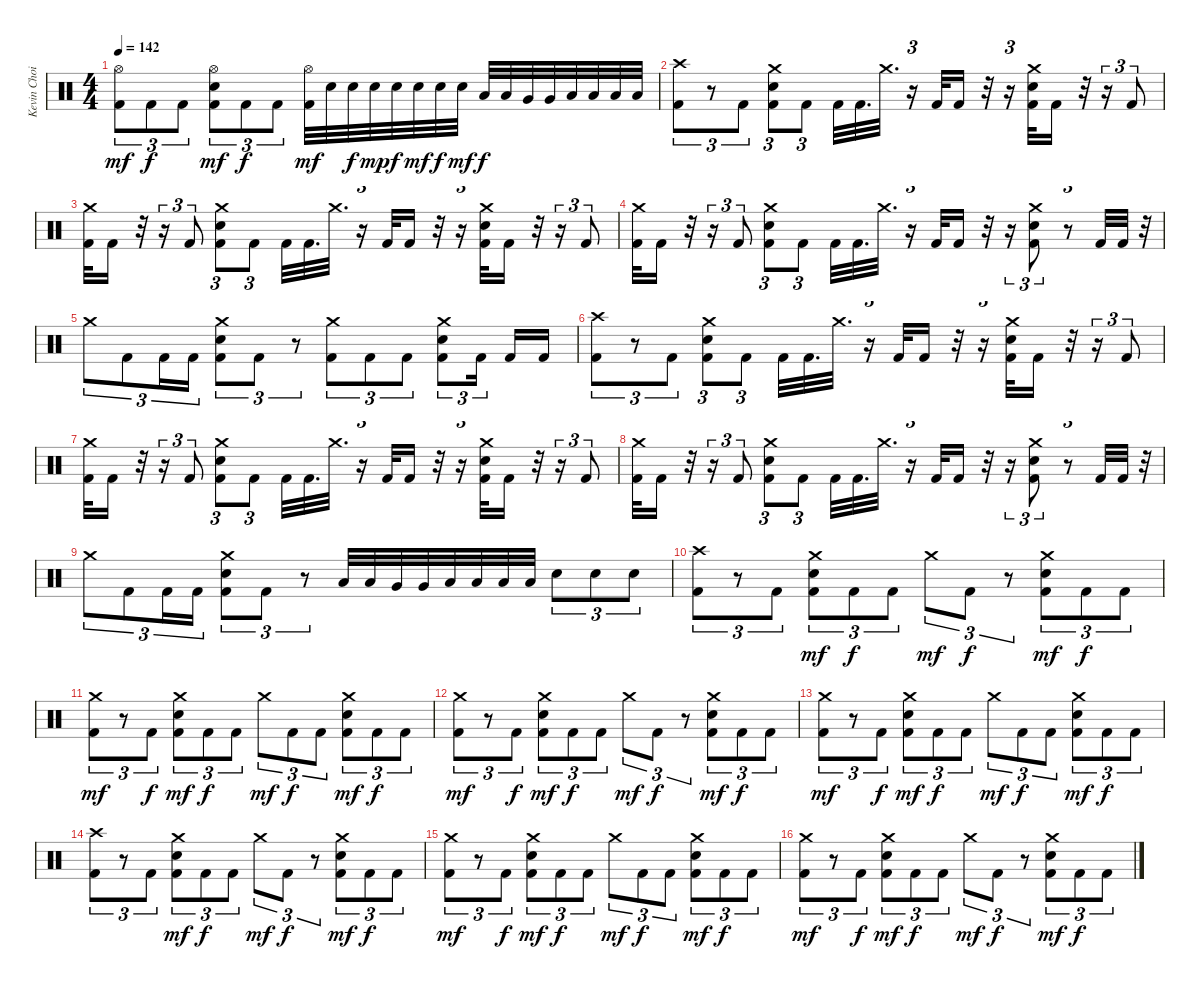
\track ("Kevin Choiral" "Kevin Choi") {instrument percussion}
\staff
\articulation defaults
\ts (4 4)
\tempo 142
\clef neutral
\ks c
("Hi-Hat (open)" "Kick (hit) 2").8{tu (3 2) dy mf} "Kick (hit) 2".8{tu (3 2) dy f} "Kick (hit) 2".8{tu (3 2)} ("Hi-Hat (open)" "Electric Snare (hit)" "Kick (hit) 2").8{tu (3 2) dy mf} "Kick (hit) 2".8{tu (3 2) dy f} "Kick (hit) 2".8{tu (3 2)} ("Hi-Hat (open)" "Kick (hit) 2").32{dy mf} "Electric Snare (hit)".32 "Electric Snare (hit)".32{dy f} "Electric Snare (hit)".32{dy mp} "Electric Snare (hit)".32{dy f} "Electric Snare (hit)".32{dy mf} "Electric Snare (hit)".32{dy f} "Electric Snare (hit)".32{dy mf} "Low Tom (hit)".32{dy f} "Low Tom (hit)".32 "Very Low Tom (hit)".32 "Very Low Tom (hit)".32 "Low Floor Tom (hit)".32 "Low Floor Tom (hit)".32 "Low Floor Tom (hit)".32 "Low Floor Tom (hit)".32 |
("Crash high (hit)" "Kick (hit) 2").8{tu (3 2)} r.8{tu (3 2)} "Kick (hit) 2".8{tu (3 2)} ("Crash medium (hit)" "Electric Snare (hit)" "Kick (hit) 2").8{tu (3 2)} "Kick (hit) 2".8{tu (3 2)} "Kick (hit) 2".32 "Kick (hit) 2".32{d} "Crash medium (hit)".32{d} r.16{tu (3 2)} "Kick (hit) 2".32 "Kick (hit) 2".16 r.32 r.16{tu (3 2)} ("Crash medium (hit)" "Electric Snare (hit)" "Kick (hit) 2").32 "Kick (hit) 2".16 r.32 r.16{tu (3 2)} "Kick (hit) 2".8{tu (3 2)} |
("Crash medium (hit)" "Kick (hit) 2").32 "Kick (hit) 2".16 r.32 r.16{tu (3 2)} "Kick (hit) 2".8{tu (3 2)} ("Crash medium (hit)" "Electric Snare (hit)" "Kick (hit) 2").8{tu (3 2)} "Kick (hit) 2".8{tu (3 2)} "Kick (hit) 2".32 "Kick (hit) 2".32{d} "Crash medium (hit)".32{d} r.16{tu (3 2)} "Kick (hit) 2".32 "Kick (hit) 2".16 r.32 r.16{tu (3 2)} ("Crash medium (hit)" "Electric Snare (hit)" "Kick (hit) 2").32 "Kick (hit) 2".16 r.32 r.16{tu (3 2)} "Kick (hit) 2".8{tu (3 2)} |
("Crash medium (hit)" "Kick (hit) 2").32 "Kick (hit) 2".16 r.32 r.16{tu (3 2)} "Kick (hit) 2".8{tu (3 2)} ("Crash medium (hit)" "Electric Snare (hit)" "Kick (hit) 2").8{tu (3 2)} "Kick (hit) 2".8{tu (3 2)} "Kick (hit) 2".32 "Kick (hit) 2".32{d} "Crash medium (hit)".32{d} r.16{tu (3 2)} "Kick (hit) 2".32 "Kick (hit) 2".16 r.32 r.16{tu (3 2)} ("Crash medium (hit)" "Electric Snare (hit)" "Kick (hit) 2").8{tu (3 2)} r.8{tu (3 2)} "Kick (hit) 2".32 "Kick (hit) 2".32 r.32{tu (3 2)} |
"Crash medium (hit)".8{tu (3 2)} "Kick (hit) 2".8{tu (3 2)} "Kick (hit) 2".16{tu (3 2)} "Kick (hit) 2".16{tu (3 2)} ("Crash medium (hit)" "Electric Snare (hit)" "Kick (hit) 2").8{tu (3 2)} "Kick (hit) 2".8{tu (3 2)} r.8{tu (3 2)} ("Crash medium (hit)" "Kick (hit) 2").8{tu (3 2)} "Kick (hit) 2".8{tu (3 2)} "Kick (hit) 2".8{tu (3 2)} ("Crash medium (hit)" "Electric Snare (hit)" "Kick (hit) 2").8{tu (3 2)} "Kick (hit) 2".16{tu (3 2) beam splitsecondary} "Kick (hit) 2".16 "Kick (hit) 2".16 |
("Crash high (hit)" "Kick (hit) 2").8{tu (3 2)} r.8{tu (3 2)} "Kick (hit) 2".8{tu (3 2)} ("Crash medium (hit)" "Electric Snare (hit)" "Kick (hit) 2").8{tu (3 2)} "Kick (hit) 2".8{tu (3 2)} "Kick (hit) 2".32 "Kick (hit) 2".32{d} "Crash medium (hit)".32{d} r.16{tu (3 2)} "Kick (hit) 2".32 "Kick (hit) 2".16 r.32 r.16{tu (3 2)} ("Crash medium (hit)" "Electric Snare (hit)" "Kick (hit) 2").32 "Kick (hit) 2".16 r.32 r.16{tu (3 2)} "Kick (hit) 2".8{tu (3 2)} |
("Crash medium (hit)" "Kick (hit) 2").32 "Kick (hit) 2".16 r.32 r.16{tu (3 2)} "Kick (hit) 2".8{tu (3 2)} ("Crash medium (hit)" "Electric Snare (hit)" "Kick (hit) 2").8{tu (3 2)} "Kick (hit) 2".8{tu (3 2)} "Kick (hit) 2".32 "Kick (hit) 2".32{d} "Crash medium (hit)".32{d} r.16{tu (3 2)} "Kick (hit) 2".32 "Kick (hit) 2".16 r.32 r.16{tu (3 2)} ("Crash medium (hit)" "Electric Snare (hit)" "Kick (hit) 2").32 "Kick (hit) 2".16 r.32 r.16{tu (3 2)} "Kick (hit) 2".8{tu (3 2)} |
("Crash medium (hit)" "Kick (hit) 2").32 "Kick (hit) 2".16 r.32 r.16{tu (3 2)} "Kick (hit) 2".8{tu (3 2)} ("Crash medium (hit)" "Electric Snare (hit)" "Kick (hit) 2").8{tu (3 2)} "Kick (hit) 2".8{tu (3 2)} "Kick (hit) 2".32 "Kick (hit) 2".32{d} "Crash medium (hit)".32{d} r.16{tu (3 2)} "Kick (hit) 2".32 "Kick (hit) 2".16 r.32 r.16{tu (3 2)} ("Crash medium (hit)" "Electric Snare (hit)" "Kick (hit) 2").8{tu (3 2)} r.8{tu (3 2)} "Kick (hit) 2".32 "Kick (hit) 2".32 r.32{tu (3 2)} |
"Crash medium (hit)".8{tu (3 2)} "Kick (hit) 2".8{tu (3 2)} "Kick (hit) 2".16{tu (3 2)} "Kick (hit) 2".16{tu (3 2)} ("Crash medium (hit)" "Electric Snare (hit)" "Kick (hit) 2").8{tu (3 2)} "Kick (hit) 2".8{tu (3 2)} r.8{tu (3 2)} "Low Tom (hit)".32 "Low Tom (hit)".32 "Very Low Tom (hit)".32 "Very Low Tom (hit)".32 "Low Floor Tom (hit)".32 "Low Floor Tom (hit)".32 "Low Floor Tom (hit)".32 "Low Floor Tom (hit)".32 "Electric Snare (hit)".8{tu (3 2)} "Electric Snare (hit)".8{tu (3 2)} "Electric Snare (hit)".8{tu (3 2)} |
("Crash high (hit)" "Kick (hit) 2").8{tu (3 2)} r.8{tu (3 2)} "Kick (hit) 2".8{tu (3 2)} ("Crash medium (hit)" "Electric Snare (hit)" "Kick (hit) 2").8{tu (3 2) dy mf} "Kick (hit) 2".8{tu (3 2) dy f} "Kick (hit) 2".8{tu (3 2)} "Crash medium (hit)".8{tu (3 2) dy mf} "Kick (hit) 2".8{tu (3 2) dy f} r.8{tu (3 2)} ("Crash medium (hit)" "Electric Snare (hit)" "Kick (hit) 2").8{tu (3 2) dy mf} "Kick (hit) 2".8{tu (3 2) dy f} "Kick (hit) 2".8{tu (3 2)} |
("Crash medium (hit)" "Kick (hit) 2").8{tu (3 2) dy mf} r.8{tu (3 2)} "Kick (hit) 2".8{tu (3 2) dy f} ("Crash medium (hit)" "Electric Snare (hit)" "Kick (hit) 2").8{tu (3 2) dy mf} "Kick (hit) 2".8{tu (3 2) dy f} "Kick (hit) 2".8{tu (3 2)} "Crash medium (hit)".8{tu (3 2) dy mf} "Kick (hit) 2".8{tu (3 2) dy f} "Kick (hit) 2".8{tu (3 2)} ("Crash medium (hit)" "Electric Snare (hit)" "Kick (hit) 2").8{tu (3 2) dy mf} "Kick (hit) 2".8{tu (3 2) dy f} "Kick (hit) 2".8{tu (3 2)} |
("Crash medium (hit)" "Kick (hit) 2").8{tu (3 2) dy mf} r.8{tu (3 2)} "Kick (hit) 2".8{tu (3 2) dy f} ("Crash medium (hit)" "Electric Snare (hit)" "Kick (hit) 2").8{tu (3 2) dy mf} "Kick (hit) 2".8{tu (3 2) dy f} "Kick (hit) 2".8{tu (3 2)} "Crash medium (hit)".8{tu (3 2) dy mf} "Kick (hit) 2".8{tu (3 2) dy f} r.8{tu (3 2)} ("Crash medium (hit)" "Electric Snare (hit)" "Kick (hit) 2").8{tu (3 2) dy mf} "Kick (hit) 2".8{tu (3 2) dy f} "Kick (hit) 2".8{tu (3 2)} |
("Crash medium (hit)" "Kick (hit) 2").8{tu (3 2) dy mf} r.8{tu (3 2)} "Kick (hit) 2".8{tu (3 2) dy f} ("Crash medium (hit)" "Electric Snare (hit)" "Kick (hit) 2").8{tu (3 2) dy mf} "Kick (hit) 2".8{tu (3 2) dy f} "Kick (hit) 2".8{tu (3 2)} "Crash medium (hit)".8{tu (3 2) dy mf} "Kick (hit) 2".8{tu (3 2) dy f} "Kick (hit) 2".8{tu (3 2)} ("Crash medium (hit)" "Electric Snare (hit)" "Kick (hit) 2").8{tu (3 2) dy mf} "Kick (hit) 2".8{tu (3 2) dy f} "Kick (hit) 2".8{tu (3 2)} |
("Crash high (hit)" "Kick (hit) 2").8{tu (3 2)} r.8{tu (3 2)} "Kick (hit) 2".8{tu (3 2)} ("Crash medium (hit)" "Electric Snare (hit)" "Kick (hit) 2").8{tu (3 2) dy mf} "Kick (hit) 2".8{tu (3 2) dy f} "Kick (hit) 2".8{tu (3 2)} "Crash medium (hit)".8{tu (3 2) dy mf} "Kick (hit) 2".8{tu (3 2) dy f} r.8{tu (3 2)} ("Crash medium (hit)" "Electric Snare (hit)" "Kick (hit) 2").8{tu (3 2) dy mf} "Kick (hit) 2".8{tu (3 2) dy f} "Kick (hit) 2".8{tu (3 2)} |
("Crash medium (hit)" "Kick (hit) 2").8{tu (3 2) dy mf} r.8{tu (3 2)} "Kick (hit) 2".8{tu (3 2) dy f} ("Crash medium (hit)" "Electric Snare (hit)" "Kick (hit) 2").8{tu (3 2) dy mf} "Kick (hit) 2".8{tu (3 2) dy f} "Kick (hit) 2".8{tu (3 2)} "Crash medium (hit)".8{tu (3 2) dy mf} "Kick (hit) 2".8{tu (3 2) dy f} "Kick (hit) 2".8{tu (3 2)} ("Crash medium (hit)" "Electric Snare (hit)" "Kick (hit) 2").8{tu (3 2) dy mf} "Kick (hit) 2".8{tu (3 2) dy f} "Kick (hit) 2".8{tu (3 2)} |
("Crash medium (hit)" "Kick (hit) 2").8{tu (3 2) dy mf} r.8{tu (3 2)} "Kick (hit) 2".8{tu (3 2) dy f} ("Crash medium (hit)" "Electric Snare (hit)" "Kick (hit) 2").8{tu (3 2) dy mf} "Kick (hit) 2".8{tu (3 2) dy f} "Kick (hit) 2".8{tu (3 2)} "Crash medium (hit)".8{tu (3 2) dy mf} "Kick (hit) 2".8{tu (3 2) dy f} r.8{tu (3 2)} ("Crash medium (hit)" "Electric Snare (hit)" "Kick (hit) 2").8{tu (3 2) dy mf} "Kick (hit) 2".8{tu (3 2) dy f} "Kick (hit) 2".8{tu (3 2)}
